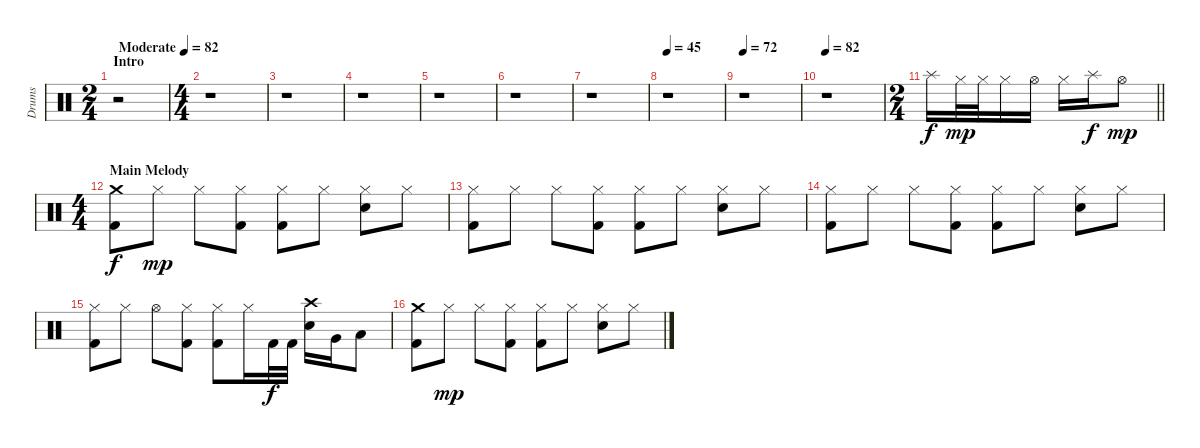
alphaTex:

\track ("Drums" "Drums") {instrument percussion}
\staff {score}
\articulation defaults
\ts (2 4)
\section ("" "Intro")
\tempo (82 "Moderate")
\clef neutral
\ks c
r.2{dy f} |
\ts (4 4)
r.1 |
r.1 |
r.1 |
r.1 |
r.1 |
r.1 |
\tempo 45
r.1 |
\tempo 72
r.1 |
\tempo 82
r.1 |
\ts (2 4)
\barLineRight lightlight "Splash (hit)".16 "Hi-Hat (closed)".32{dy mp} "Hi-Hat (closed)".32 "Hi-Hat (closed)".16 "Hi-Hat (open)".16 "Hi-Hat (closed)".16 "Splash (hit)".16{dy f} "Hi-Hat (open)".8{dy mp}
|
\ts (4 4)
\section ("" "Main Melody")
("Crash medium (hit)" "Kick (hit) 2").8{dy f} "Hi-Hat (closed)".8{dy mp} "Hi-Hat (closed)".8 ("Hi-Hat (closed)" "Kick (hit) 2").8 ("Hi-Hat (closed)" "Kick (hit) 2").8 "Hi-Hat (closed)".8 ("Hi-Hat (closed)" "Snare (hit) 2").8 "Hi-Hat (closed)".8 |
("Hi-Hat (closed)" "Kick (hit) 2").8 "Hi-Hat (closed)".8 "Hi-Hat (closed)".8 ("Hi-Hat (closed)" "Kick (hit) 2").8 ("Hi-Hat (closed)" "Kick (hit) 2").8 "Hi-Hat (closed)".8 ("Hi-Hat (closed)" "Snare (hit) 2").8 "Hi-Hat (closed)".8 |
("Hi-Hat (closed)" "Kick (hit) 2").8 "Hi-Hat (closed)".8 "Hi-Hat (closed)".8 ("Hi-Hat (closed)" "Kick (hit) 2").8 ("Hi-Hat (closed)" "Kick (hit) 2").8 "Hi-Hat (closed)".8 ("Hi-Hat (closed)" "Snare (hit) 2").8 "Hi-Hat (closed)".8 |
("Hi-Hat (closed)" "Kick (hit) 2").8 "Hi-Hat (closed)".8 "Hi-Hat (open)".8 ("Hi-Hat (closed)" "Kick (hit) 2").8 ("Hi-Hat (closed)" "Kick (hit) 2").8 "Hi-Hat (closed)".16 "Kick (hit) 2".32{dy f} "Kick (hit) 2".32 ("Crash high (hit)" "Snare (hit) 2").16 "Very Low Tom (hit)".16 "Low Floor Tom (hit)".8 |
("Crash medium (hit)" "Kick (hit) 2").8 "Hi-Hat (closed)".8{dy mp} "Hi-Hat (closed)".8 ("Hi-Hat (closed)" "Kick (hit) 2").8 ("Hi-Hat (closed)" "Kick (hit) 2").8 "Hi-Hat (closed)".8 ("Hi-Hat (closed)" "Snare (hit) 2").8 "Hi-Hat (closed)".8
